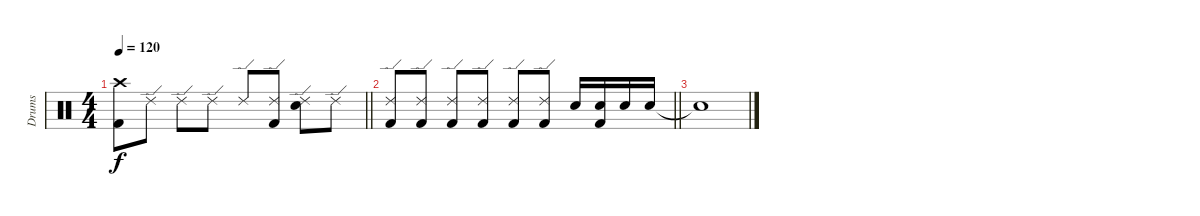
\track ("Drums" "Drums") {instrument percussion}
\staff {score}
\articulation defaults
\ts (4 4)
\tempo 120
\clef neutral
\barLineRight lightlight
\ks c
("Crash high (hit)" "Kick (hit) 2").8{dy f} "Ride (edge) 2".8 "Ride (edge) 2".8 "Ride (edge) 2".8 "Ride (edge) 2".8 ("Ride (edge) 2" "Kick (hit) 2").8 ("Ride (edge) 2" "Snare (hit) 2").8 "Ride (edge) 2".8 |
\barLineRight lightlight
("Ride (edge) 2" "Kick (hit) 2").8 ("Ride (edge) 2" "Kick (hit) 2").8 ("Ride (edge) 2" "Kick (hit) 2").8 ("Ride (edge) 2" "Kick (hit) 2").8 ("Ride (edge) 2" "Kick (hit) 2").8 ("Ride (edge) 2" "Kick (hit) 2").8 "Snare (hit) 2".16 ("Snare (hit) 2" "Kick (hit) 2").16 "Snare (hit) 2".16 "Snare (hit) 2".16 |
"Snare (hit)"{t}.1
